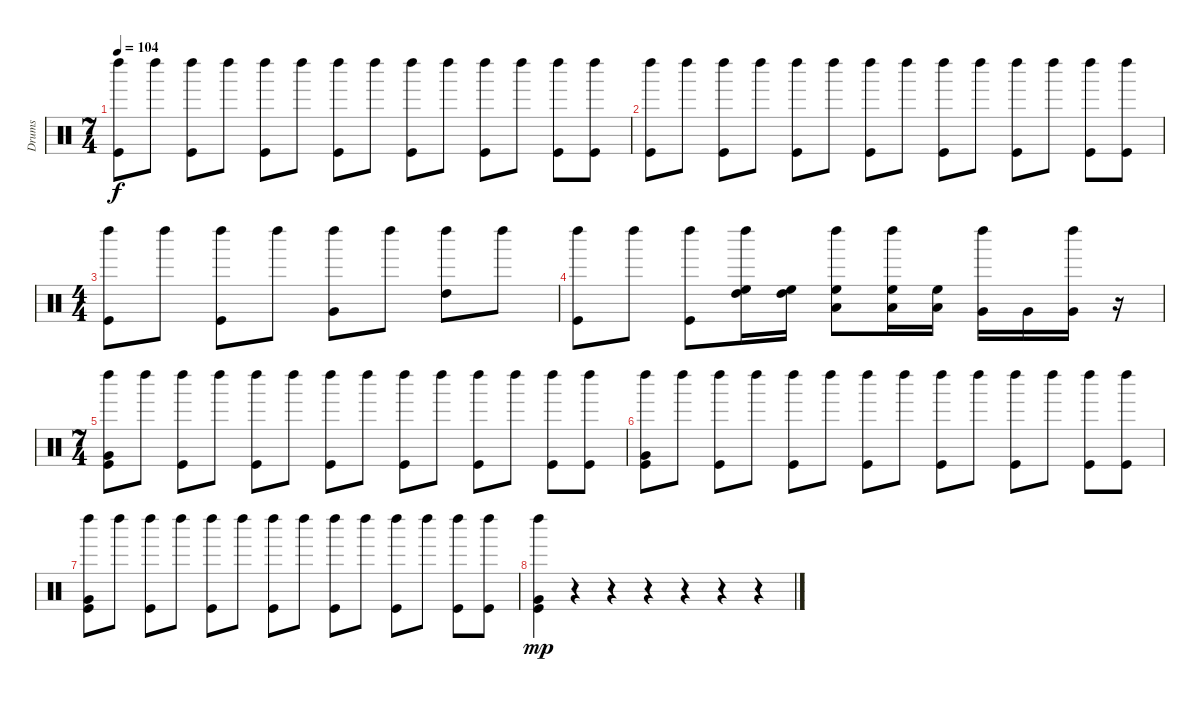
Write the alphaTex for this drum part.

\track ("Drums" "Drums") {instrument percussion}
\staff {score}
\articulation defaults
\ts (7 4)
\tempo 104
\clef neutral
\ks c
("Left Maraca (hit)" "Kick (hit)").8{dy f} "Left Maraca (hit)".8 ("Left Maraca (hit)" "Kick (hit)").8 "Left Maraca (hit)".8 ("Left Maraca (hit)" "Kick (hit)").8 "Left Maraca (hit)".8 ("Left Maraca (hit)" "Kick (hit)").8 "Left Maraca (hit)".8 ("Left Maraca (hit)" "Kick (hit)").8 "Left Maraca (hit)".8 ("Left Maraca (hit)" "Kick (hit)").8 "Left Maraca (hit)".8 ("Left Maraca (hit)" "Kick (hit)").8 ("Left Maraca (hit)" "Kick (hit)").8 |
("Left Maraca (hit)" "Kick (hit)").8 "Left Maraca (hit)".8 ("Left Maraca (hit)" "Kick (hit)").8 "Left Maraca (hit)".8 ("Left Maraca (hit)" "Kick (hit)").8 "Left Maraca (hit)".8 ("Left Maraca (hit)" "Kick (hit)").8 "Left Maraca (hit)".8 ("Left Maraca (hit)" "Kick (hit)").8 "Left Maraca (hit)".8 ("Left Maraca (hit)" "Kick (hit)").8 "Left Maraca (hit)".8 ("Left Maraca (hit)" "Kick (hit)").8 ("Left Maraca (hit)" "Kick (hit)").8 |
\ts (4 4)
("Left Maraca (hit)" "Kick (hit)").8 "Left Maraca (hit)".8 ("Left Maraca (hit)" "Kick (hit)").8 "Left Maraca (hit)".8 ("Left Maraca (hit)" "Very Low Tom (hit)").8 "Left Maraca (hit)".8 ("Left Maraca (hit)" "High Tom (hit)").8 "Left Maraca (hit)".8 |
("Left Maraca (hit)" "Kick (hit)").8 "Left Maraca (hit)".8 ("Left Maraca (hit)" "Kick (hit)").8 ("Left Maraca (hit)" "High Floor Tom (hit)" "High Tom (hit)").16 ("High Floor Tom (hit)" "High Tom (hit)").16 ("Left Maraca (hit)" "High Floor Tom (hit)" "Low Tom (hit)").8 ("Left Maraca (hit)" "High Floor Tom (hit)" "Low Tom (hit)").16 ("High Floor Tom (hit)" "Low Tom (hit)").16 ("Left Maraca (hit)" "Very Low Tom (hit)").16 "Very Low Tom (hit)".16 ("Left Maraca (hit)" "Very Low Tom (hit)").16 r.16 |
\ts (7 4)
("Left Maraca (hit)" "Very Low Tom (hit)" "Kick (hit)").8 "Left Maraca (hit)".8 ("Left Maraca (hit)" "Kick (hit)").8 "Left Maraca (hit)".8 ("Left Maraca (hit)" "Kick (hit)").8 "Left Maraca (hit)".8 ("Left Maraca (hit)" "Kick (hit)").8 "Left Maraca (hit)".8 ("Left Maraca (hit)" "Kick (hit)").8 "Left Maraca (hit)".8 ("Left Maraca (hit)" "Kick (hit)").8 "Left Maraca (hit)".8 ("Left Maraca (hit)" "Kick (hit)").8 ("Left Maraca (hit)" "Kick (hit)").8 |
("Left Maraca (hit)" "Very Low Tom (hit)" "Kick (hit)").8 "Left Maraca (hit)".8 ("Left Maraca (hit)" "Kick (hit)").8 "Left Maraca (hit)".8 ("Left Maraca (hit)" "Kick (hit)").8 "Left Maraca (hit)".8 ("Left Maraca (hit)" "Kick (hit)").8 "Left Maraca (hit)".8 ("Left Maraca (hit)" "Kick (hit)").8 "Left Maraca (hit)".8 ("Left Maraca (hit)" "Kick (hit)").8 "Left Maraca (hit)".8 ("Left Maraca (hit)" "Kick (hit)").8 ("Left Maraca (hit)" "Kick (hit)").8 |
("Left Maraca (hit)" "Very Low Tom (hit)" "Kick (hit)").8 "Left Maraca (hit)".8 ("Left Maraca (hit)" "Kick (hit)").8 "Left Maraca (hit)".8 ("Left Maraca (hit)" "Kick (hit)").8 "Left Maraca (hit)".8 ("Left Maraca (hit)" "Kick (hit)").8 "Left Maraca (hit)".8 ("Left Maraca (hit)" "Kick (hit)").8 "Left Maraca (hit)".8 ("Left Maraca (hit)" "Kick (hit)").8 "Left Maraca (hit)".8 ("Left Maraca (hit)" "Kick (hit)").8 ("Left Maraca (hit)" "Kick (hit)").8 |
("Left Maraca (hit)" "Very Low Tom (hit)" "Kick (hit)").4{dy mp} r.4 r.4 r.4 r.4 r.4 r.4
